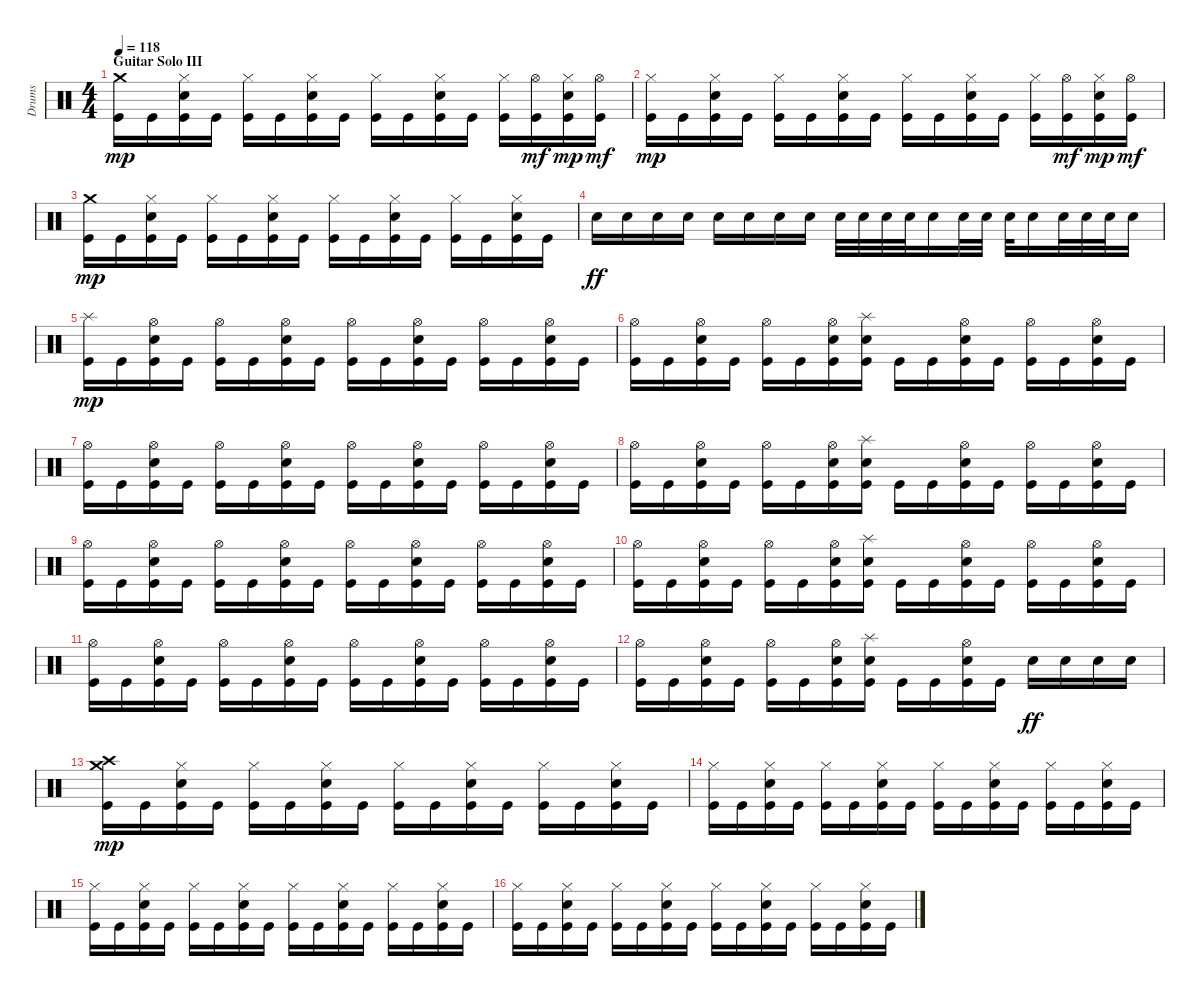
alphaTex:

\track ("Drums" "Drums") {instrument percussion}
\staff {score}
\articulation defaults
\ts (4 4)
\section ("" "Guitar Solo III")
\tempo 118
\clef neutral
\ks c
("Crash medium (hit)" "Kick (hit)").16{dy mp} "Kick (hit)".16 ("Hi-Hat (closed)" "Electric Snare (hit)" "Kick (hit)").16 "Kick (hit)".16 ("Hi-Hat (closed)" "Kick (hit)").16 "Kick (hit)".16 ("Hi-Hat (closed)" "Electric Snare (hit)" "Kick (hit)").16 "Kick (hit)".16 ("Hi-Hat (closed)" "Kick (hit)").16 "Kick (hit)".16 ("Hi-Hat (closed)" "Electric Snare (hit)" "Kick (hit)").16 "Kick (hit)".16 ("Hi-Hat (closed)" "Kick (hit)").16 ("Hi-Hat (open)" "Kick (hit)").16{dy mf} ("Hi-Hat (closed)" "Electric Snare (hit)" "Kick (hit)").16{dy mp} ("Hi-Hat (open)" "Kick (hit)").16{dy mf} |
("Hi-Hat (closed)" "Kick (hit)").16{dy mp} "Kick (hit)".16 ("Hi-Hat (closed)" "Electric Snare (hit)" "Kick (hit)").16 "Kick (hit)".16 ("Hi-Hat (closed)" "Kick (hit)").16 "Kick (hit)".16 ("Hi-Hat (closed)" "Electric Snare (hit)" "Kick (hit)").16 "Kick (hit)".16 ("Hi-Hat (closed)" "Kick (hit)").16 "Kick (hit)".16 ("Hi-Hat (closed)" "Electric Snare (hit)" "Kick (hit)").16 "Kick (hit)".16 ("Hi-Hat (closed)" "Kick (hit)").16 ("Hi-Hat (open)" "Kick (hit)").16{dy mf} ("Hi-Hat (closed)" "Electric Snare (hit)" "Kick (hit)").16{dy mp} ("Hi-Hat (open)" "Kick (hit)").16{dy mf} |
("Crash medium (hit)" "Kick (hit)").16{dy mp} "Kick (hit)".16 ("Hi-Hat (closed)" "Electric Snare (hit)" "Kick (hit)").16 "Kick (hit)".16 ("Hi-Hat (closed)" "Kick (hit)").16 "Kick (hit)".16 ("Hi-Hat (closed)" "Electric Snare (hit)" "Kick (hit)").16 "Kick (hit)".16 ("Hi-Hat (closed)" "Kick (hit)").16 "Kick (hit)".16 ("Hi-Hat (closed)" "Electric Snare (hit)" "Kick (hit)").16 "Kick (hit)".16 ("Hi-Hat (closed)" "Kick (hit)").16 "Kick (hit)".16 ("Hi-Hat (closed)" "Electric Snare (hit)" "Kick (hit)").16 "Kick (hit)".16 |
"Snare (hit) 2".16{dy ff} "Snare (hit) 2".16 "Snare (hit) 2".16 "Snare (hit) 2".16 "Snare (hit) 2".16 "Snare (hit) 2".16 "Snare (hit) 2".16 "Snare (hit) 2".16 "Snare (hit) 2".32 "Snare (hit) 2".32 "Snare (hit) 2".32 "Snare (hit) 2".32 "Snare (hit) 2".16 "Snare (hit) 2".32 "Snare (hit) 2".32 "Snare (hit) 2".32 "Snare (hit) 2".16 "Snare (hit) 2".32 "Snare (hit) 2".32 "Snare (hit) 2".32 "Snare (hit) 2".16 |
("Splash (hit)" "Kick (hit)").16{dy mp} "Kick (hit)".16 ("Hi-Hat (open)" "Electric Snare (hit)" "Kick (hit)").16 "Kick (hit)".16 ("Hi-Hat (open)" "Kick (hit)").16 "Kick (hit)".16 ("Hi-Hat (open)" "Electric Snare (hit)" "Kick (hit)").16 "Kick (hit)".16 ("Hi-Hat (open)" "Kick (hit)").16 "Kick (hit)".16 ("Hi-Hat (open)" "Electric Snare (hit)" "Kick (hit)").16 "Kick (hit)".16 ("Hi-Hat (open)" "Kick (hit)").16 "Kick (hit)".16 ("Hi-Hat (open)" "Electric Snare (hit)" "Kick (hit)").16 "Kick (hit)".16 |
("Hi-Hat (open)" "Kick (hit)").16 "Kick (hit)".16 ("Hi-Hat (open)" "Electric Snare (hit)" "Kick (hit)").16 "Kick (hit)".16 ("Hi-Hat (open)" "Kick (hit)").16 "Kick (hit)".16 ("Hi-Hat (open)" "Electric Snare (hit)" "Kick (hit)").16 ("Splash (hit)" "Electric Snare (hit)" "Kick (hit)").16 "Kick (hit)".16 "Kick (hit)".16 ("Hi-Hat (open)" "Electric Snare (hit)" "Kick (hit)").16 "Kick (hit)".16 ("Hi-Hat (open)" "Kick (hit)").16 "Kick (hit)".16 ("Hi-Hat (open)" "Electric Snare (hit)" "Kick (hit)").16 "Kick (hit)".16 |
("Hi-Hat (open)" "Kick (hit)").16 "Kick (hit)".16 ("Hi-Hat (open)" "Electric Snare (hit)" "Kick (hit)").16 "Kick (hit)".16 ("Hi-Hat (open)" "Kick (hit)").16 "Kick (hit)".16 ("Hi-Hat (open)" "Electric Snare (hit)" "Kick (hit)").16 "Kick (hit)".16 ("Hi-Hat (open)" "Kick (hit)").16 "Kick (hit)".16 ("Hi-Hat (open)" "Electric Snare (hit)" "Kick (hit)").16 "Kick (hit)".16 ("Hi-Hat (open)" "Kick (hit)").16 "Kick (hit)".16 ("Hi-Hat (open)" "Electric Snare (hit)" "Kick (hit)").16 "Kick (hit)".16 |
("Hi-Hat (open)" "Kick (hit)").16 "Kick (hit)".16 ("Hi-Hat (open)" "Electric Snare (hit)" "Kick (hit)").16 "Kick (hit)".16 ("Hi-Hat (open)" "Kick (hit)").16 "Kick (hit)".16 ("Hi-Hat (open)" "Electric Snare (hit)" "Kick (hit)").16 ("Splash (hit)" "Electric Snare (hit)" "Kick (hit)").16 "Kick (hit)".16 "Kick (hit)".16 ("Hi-Hat (open)" "Electric Snare (hit)" "Kick (hit)").16 "Kick (hit)".16 ("Hi-Hat (open)" "Kick (hit)").16 "Kick (hit)".16 ("Hi-Hat (open)" "Electric Snare (hit)" "Kick (hit)").16 "Kick (hit)".16 |
("Hi-Hat (open)" "Kick (hit)").16 "Kick (hit)".16 ("Hi-Hat (open)" "Electric Snare (hit)" "Kick (hit)").16 "Kick (hit)".16 ("Hi-Hat (open)" "Kick (hit)").16 "Kick (hit)".16 ("Hi-Hat (open)" "Electric Snare (hit)" "Kick (hit)").16 "Kick (hit)".16 ("Hi-Hat (open)" "Kick (hit)").16 "Kick (hit)".16 ("Hi-Hat (open)" "Electric Snare (hit)" "Kick (hit)").16 "Kick (hit)".16 ("Hi-Hat (open)" "Kick (hit)").16 "Kick (hit)".16 ("Hi-Hat (open)" "Electric Snare (hit)" "Kick (hit)").16 "Kick (hit)".16 |
("Hi-Hat (open)" "Kick (hit)").16 "Kick (hit)".16 ("Hi-Hat (open)" "Electric Snare (hit)" "Kick (hit)").16 "Kick (hit)".16 ("Hi-Hat (open)" "Kick (hit)").16 "Kick (hit)".16 ("Hi-Hat (open)" "Electric Snare (hit)" "Kick (hit)").16 ("Splash (hit)" "Electric Snare (hit)" "Kick (hit)").16 "Kick (hit)".16 "Kick (hit)".16 ("Hi-Hat (open)" "Electric Snare (hit)" "Kick (hit)").16 "Kick (hit)".16 ("Hi-Hat (open)" "Kick (hit)").16 "Kick (hit)".16 ("Hi-Hat (open)" "Electric Snare (hit)" "Kick (hit)").16 "Kick (hit)".16 |
("Hi-Hat (open)" "Kick (hit)").16 "Kick (hit)".16 ("Hi-Hat (open)" "Electric Snare (hit)" "Kick (hit)").16 "Kick (hit)".16 ("Hi-Hat (open)" "Kick (hit)").16 "Kick (hit)".16 ("Hi-Hat (open)" "Electric Snare (hit)" "Kick (hit)").16 "Kick (hit)".16 ("Hi-Hat (open)" "Kick (hit)").16 "Kick (hit)".16 ("Hi-Hat (open)" "Electric Snare (hit)" "Kick (hit)").16 "Kick (hit)".16 ("Hi-Hat (open)" "Kick (hit)").16 "Kick (hit)".16 ("Hi-Hat (open)" "Electric Snare (hit)" "Kick (hit)").16 "Kick (hit)".16 |
("Hi-Hat (open)" "Kick (hit)").16 "Kick (hit)".16 ("Hi-Hat (open)" "Electric Snare (hit)" "Kick (hit)").16 "Kick (hit)".16 ("Hi-Hat (open)" "Kick (hit)").16 "Kick (hit)".16 ("Hi-Hat (open)" "Electric Snare (hit)" "Kick (hit)").16 ("Splash (hit)" "Electric Snare (hit)" "Kick (hit)").16 "Kick (hit)".16 "Kick (hit)".16 ("Hi-Hat (open)" "Electric Snare (hit)" "Kick (hit)").16 "Kick (hit)".16 "Electric Snare (hit)".16{dy ff} "Electric Snare (hit)".16 "Electric Snare (hit)".16 "Electric Snare (hit)".16 |
("Crash high (hit)" "Crash medium (hit)" "Kick (hit)").16{dy mp} "Kick (hit)".16 ("Hi-Hat (closed)" "Electric Snare (hit)" "Kick (hit)").16 "Kick (hit)".16 ("Hi-Hat (closed)" "Kick (hit)").16 "Kick (hit)".16 ("Hi-Hat (closed)" "Electric Snare (hit)" "Kick (hit)").16 "Kick (hit)".16 ("Hi-Hat (closed)" "Kick (hit)").16 "Kick (hit)".16 ("Hi-Hat (closed)" "Electric Snare (hit)" "Kick (hit)").16 "Kick (hit)".16 ("Hi-Hat (closed)" "Kick (hit)").16 "Kick (hit)".16 ("Hi-Hat (closed)" "Electric Snare (hit)" "Kick (hit)").16 "Kick (hit)".16 |
("Hi-Hat (closed)" "Kick (hit)").16 "Kick (hit)".16 ("Hi-Hat (closed)" "Electric Snare (hit)" "Kick (hit)").16 "Kick (hit)".16 ("Hi-Hat (closed)" "Kick (hit)").16 "Kick (hit)".16 ("Hi-Hat (closed)" "Electric Snare (hit)" "Kick (hit)").16 "Kick (hit)".16 ("Hi-Hat (closed)" "Kick (hit)").16 "Kick (hit)".16 ("Hi-Hat (closed)" "Electric Snare (hit)" "Kick (hit)").16 "Kick (hit)".16 ("Hi-Hat (closed)" "Kick (hit)").16 "Kick (hit)".16 ("Hi-Hat (closed)" "Electric Snare (hit)" "Kick (hit)").16 "Kick (hit)".16 |
("Hi-Hat (closed)" "Kick (hit)").16 "Kick (hit)".16 ("Hi-Hat (closed)" "Electric Snare (hit)" "Kick (hit)").16 "Kick (hit)".16 ("Hi-Hat (closed)" "Kick (hit)").16 "Kick (hit)".16 ("Hi-Hat (closed)" "Electric Snare (hit)" "Kick (hit)").16 "Kick (hit)".16 ("Hi-Hat (closed)" "Kick (hit)").16 "Kick (hit)".16 ("Hi-Hat (closed)" "Electric Snare (hit)" "Kick (hit)").16 "Kick (hit)".16 ("Hi-Hat (closed)" "Kick (hit)").16 "Kick (hit)".16 ("Hi-Hat (closed)" "Electric Snare (hit)" "Kick (hit)").16 "Kick (hit)".16 |
("Hi-Hat (closed)" "Kick (hit)").16 "Kick (hit)".16 ("Hi-Hat (closed)" "Electric Snare (hit)" "Kick (hit)").16 "Kick (hit)".16 ("Hi-Hat (closed)" "Kick (hit)").16 "Kick (hit)".16 ("Hi-Hat (closed)" "Electric Snare (hit)" "Kick (hit)").16 "Kick (hit)".16 ("Hi-Hat (closed)" "Kick (hit)").16 "Kick (hit)".16 ("Hi-Hat (closed)" "Electric Snare (hit)" "Kick (hit)").16 "Kick (hit)".16 ("Hi-Hat (closed)" "Kick (hit)").16 "Kick (hit)".16 ("Hi-Hat (closed)" "Electric Snare (hit)" "Kick (hit)").16 "Kick (hit)".16
